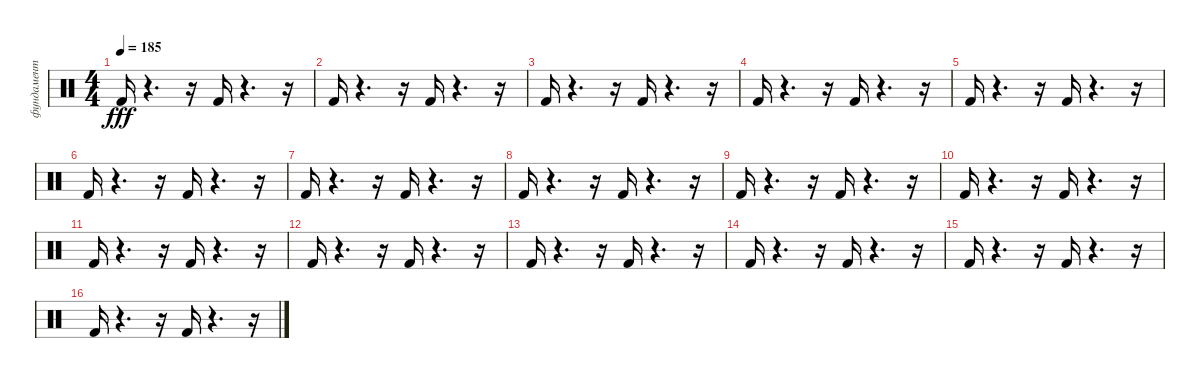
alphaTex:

\track ("фундамент" "фундамент") {instrument percussion}
\staff {score}
\articulation defaults
\ts (4 4)
\tempo 185
\clef neutral
\ks c "Kick (hit) 2".16{dy fff}
r.4{d} r.16 "Kick (hit) 2".16 r.4{d} r.16 |
"Kick (hit) 2".16 r.4{d} r.16 "Kick (hit) 2".16 r.4{d} r.16 |
"Kick (hit) 2".16 r.4{d} r.16 "Kick (hit) 2".16 r.4{d} r.16 |
"Kick (hit) 2".16 r.4{d} r.16 "Kick (hit) 2".16 r.4{d} r.16 |
"Kick (hit) 2".16 r.4{d} r.16 "Kick (hit) 2".16 r.4{d} r.16 |
"Kick (hit) 2".16 r.4{d} r.16 "Kick (hit) 2".16 r.4{d} r.16 |
"Kick (hit) 2".16 r.4{d} r.16 "Kick (hit) 2".16 r.4{d} r.16 |
"Kick (hit) 2".16 r.4{d} r.16 "Kick (hit) 2".16 r.4{d} r.16 |
"Kick (hit) 2".16 r.4{d} r.16 "Kick (hit) 2".16 r.4{d} r.16 |
"Kick (hit) 2".16 r.4{d} r.16 "Kick (hit) 2".16 r.4{d} r.16 |
"Kick (hit) 2".16 r.4{d} r.16 "Kick (hit) 2".16 r.4{d} r.16 |
"Kick (hit) 2".16 r.4{d} r.16 "Kick (hit) 2".16 r.4{d} r.16 |
"Kick (hit) 2".16 r.4{d} r.16 "Kick (hit) 2".16 r.4{d} r.16 |
"Kick (hit) 2".16 r.4{d} r.16 "Kick (hit) 2".16 r.4{d} r.16 |
"Kick (hit) 2".16 r.4{d} r.16 "Kick (hit) 2".16 r.4{d} r.16 |
"Kick (hit) 2".16 r.4{d} r.16 "Kick (hit) 2".16 r.4{d} r.16
